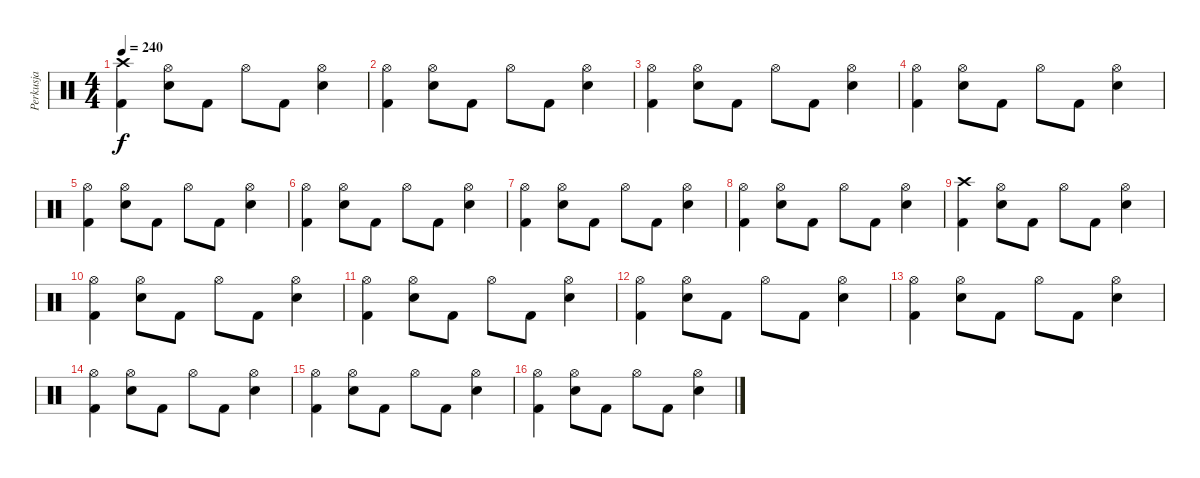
\track ("Perkusja" "Perkusja") {instrument percussion}
\staff {score}
\articulation defaults
\ts (4 4)
\tempo 240
\clef neutral
\ks c
("Crash high (hit)" "Kick (hit) 2").4{dy f} ("Hi-Hat (open)" "Electric Snare (hit)").8 "Kick (hit) 2".8 "Hi-Hat (open)".8 "Kick (hit) 2".8 ("Hi-Hat (open)" "Electric Snare (hit)").4 |
("Hi-Hat (open)" "Kick (hit) 2").4 ("Hi-Hat (open)" "Electric Snare (hit)").8 "Kick (hit) 2".8 "Hi-Hat (open)".8 "Kick (hit) 2".8 ("Hi-Hat (open)" "Electric Snare (hit)").4 |
("Hi-Hat (open)" "Kick (hit) 2").4 ("Hi-Hat (open)" "Electric Snare (hit)").8 "Kick (hit) 2".8 "Hi-Hat (open)".8 "Kick (hit) 2".8 ("Hi-Hat (open)" "Electric Snare (hit)").4 |
("Hi-Hat (open)" "Kick (hit) 2").4 ("Hi-Hat (open)" "Electric Snare (hit)").8 "Kick (hit) 2".8 "Hi-Hat (open)".8 "Kick (hit) 2".8 ("Hi-Hat (open)" "Electric Snare (hit)").4 |
("Hi-Hat (open)" "Kick (hit) 2").4 ("Hi-Hat (open)" "Electric Snare (hit)").8 "Kick (hit) 2".8 "Hi-Hat (open)".8 "Kick (hit) 2".8 ("Hi-Hat (open)" "Electric Snare (hit)").4 |
("Hi-Hat (open)" "Kick (hit) 2").4 ("Hi-Hat (open)" "Electric Snare (hit)").8 "Kick (hit) 2".8 "Hi-Hat (open)".8 "Kick (hit) 2".8 ("Hi-Hat (open)" "Electric Snare (hit)").4 |
("Hi-Hat (open)" "Kick (hit) 2").4 ("Hi-Hat (open)" "Electric Snare (hit)").8 "Kick (hit) 2".8 "Hi-Hat (open)".8 "Kick (hit) 2".8 ("Hi-Hat (open)" "Electric Snare (hit)").4 |
("Hi-Hat (open)" "Kick (hit) 2").4 ("Hi-Hat (open)" "Electric Snare (hit)").8 "Kick (hit) 2".8 "Hi-Hat (open)".8 "Kick (hit) 2".8 ("Hi-Hat (open)" "Electric Snare (hit)").4 |
("Crash high (hit)" "Kick (hit) 2").4 ("Hi-Hat (open)" "Electric Snare (hit)").8 "Kick (hit) 2".8 "Hi-Hat (open)".8 "Kick (hit) 2".8 ("Hi-Hat (open)" "Electric Snare (hit)").4 |
("Hi-Hat (open)" "Kick (hit) 2").4 ("Hi-Hat (open)" "Electric Snare (hit)").8 "Kick (hit) 2".8 "Hi-Hat (open)".8 "Kick (hit) 2".8 ("Hi-Hat (open)" "Electric Snare (hit)").4 |
("Hi-Hat (open)" "Kick (hit) 2").4 ("Hi-Hat (open)" "Electric Snare (hit)").8 "Kick (hit) 2".8 "Hi-Hat (open)".8 "Kick (hit) 2".8 ("Hi-Hat (open)" "Electric Snare (hit)").4 |
("Hi-Hat (open)" "Kick (hit) 2").4 ("Hi-Hat (open)" "Electric Snare (hit)").8 "Kick (hit) 2".8 "Hi-Hat (open)".8 "Kick (hit) 2".8 ("Hi-Hat (open)" "Electric Snare (hit)").4 |
("Hi-Hat (open)" "Kick (hit) 2").4 ("Hi-Hat (open)" "Electric Snare (hit)").8 "Kick (hit) 2".8 "Hi-Hat (open)".8 "Kick (hit) 2".8 ("Hi-Hat (open)" "Electric Snare (hit)").4 |
("Hi-Hat (open)" "Kick (hit) 2").4 ("Hi-Hat (open)" "Electric Snare (hit)").8 "Kick (hit) 2".8 "Hi-Hat (open)".8 "Kick (hit) 2".8 ("Hi-Hat (open)" "Electric Snare (hit)").4 |
("Hi-Hat (open)" "Kick (hit) 2").4 ("Hi-Hat (open)" "Electric Snare (hit)").8 "Kick (hit) 2".8 "Hi-Hat (open)".8 "Kick (hit) 2".8 ("Hi-Hat (open)" "Electric Snare (hit)").4 |
("Hi-Hat (open)" "Kick (hit) 2").4 ("Hi-Hat (open)" "Electric Snare (hit)").8 "Kick (hit) 2".8 "Hi-Hat (open)".8 "Kick (hit) 2".8 ("Hi-Hat (open)" "Electric Snare (hit)").4
